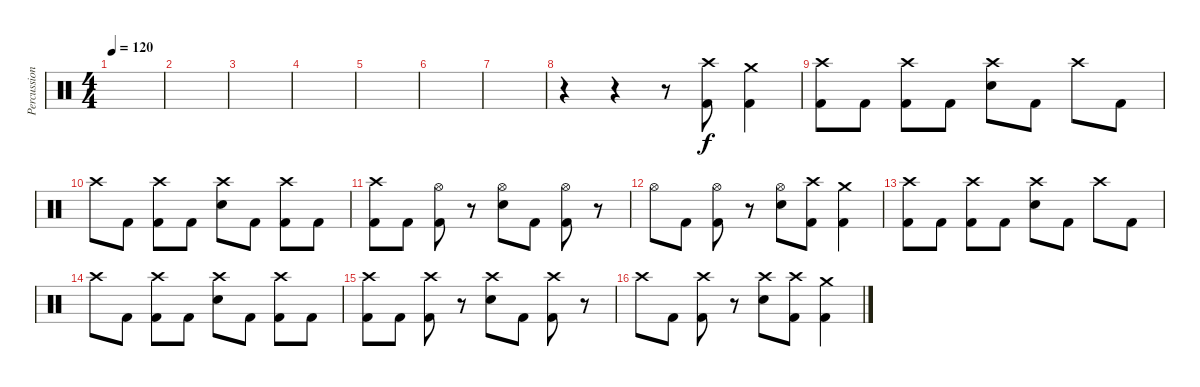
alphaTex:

\track ("Percussion" "Percussion") {instrument percussion}
\staff {score}
\articulation defaults
\ts (4 4)
\tempo 120
\clef neutral
\ks c
|
|
|
|
|
|
|
r.4 r.4 r.8 ("Crash high (hit)" "Kick (hit) 2").8 ("Crash medium (hit)" "Kick (hit) 2").4 |
("Crash high (hit)" "Kick (hit) 2").8 "Kick (hit) 2".8 ("Crash high (hit)" "Kick (hit) 2").8 "Kick (hit) 2".8 ("Crash high (hit)" "Snare (hit) 2").8 "Kick (hit) 2".8 "Crash high (hit)".8 "Kick (hit) 2".8 |
"Crash high (hit)".8 "Kick (hit) 2".8 ("Crash high (hit)" "Kick (hit) 2").8 "Kick (hit) 2".8 ("Crash high (hit)" "Snare (hit) 2").8 "Kick (hit) 2".8 ("Crash high (hit)" "Kick (hit) 2").8 "Kick (hit) 2".8 |
("Crash high (hit)" "Kick (hit) 2").8 "Kick (hit) 2".8 ("Hi-Hat (open)" "Kick (hit) 2").8 r.8 ("Hi-Hat (open)" "Snare (hit) 2").8 "Kick (hit) 2".8 ("Hi-Hat (open)" "Kick (hit) 2").8 r.8 |
"Hi-Hat (open)".8 "Kick (hit) 2".8 ("Hi-Hat (open)" "Kick (hit) 2").8 r.8 ("Hi-Hat (open)" "Snare (hit) 2").8 ("Crash high (hit)" "Kick (hit) 2").8 ("Crash medium (hit)" "Kick (hit) 2").4 |
("Crash high (hit)" "Kick (hit) 2").8 "Kick (hit) 2".8 ("Crash high (hit)" "Kick (hit) 2").8 "Kick (hit) 2".8 ("Crash high (hit)" "Snare (hit) 2").8 "Kick (hit) 2".8 "Crash high (hit)".8 "Kick (hit) 2".8 |
"Crash high (hit)".8 "Kick (hit) 2".8 ("Crash high (hit)" "Kick (hit) 2").8 "Kick (hit) 2".8 ("Crash high (hit)" "Snare (hit) 2").8 "Kick (hit) 2".8 ("Crash high (hit)" "Kick (hit) 2").8 "Kick (hit) 2".8 |
("Crash high (hit)" "Kick (hit) 2").8 "Kick (hit) 2".8 ("Crash high (hit)" "Kick (hit) 2").8 r.8 ("Crash high (hit)" "Snare (hit) 2").8 "Kick (hit) 2".8 ("Crash high (hit)" "Kick (hit) 2").8 r.8 |
"Crash high (hit)".8 "Kick (hit) 2".8 ("Crash high (hit)" "Kick (hit) 2").8 r.8 ("Crash high (hit)" "Snare (hit) 2").8 ("Crash high (hit)" "Kick (hit) 2").8 ("Crash medium (hit)" "Kick (hit) 2").4
